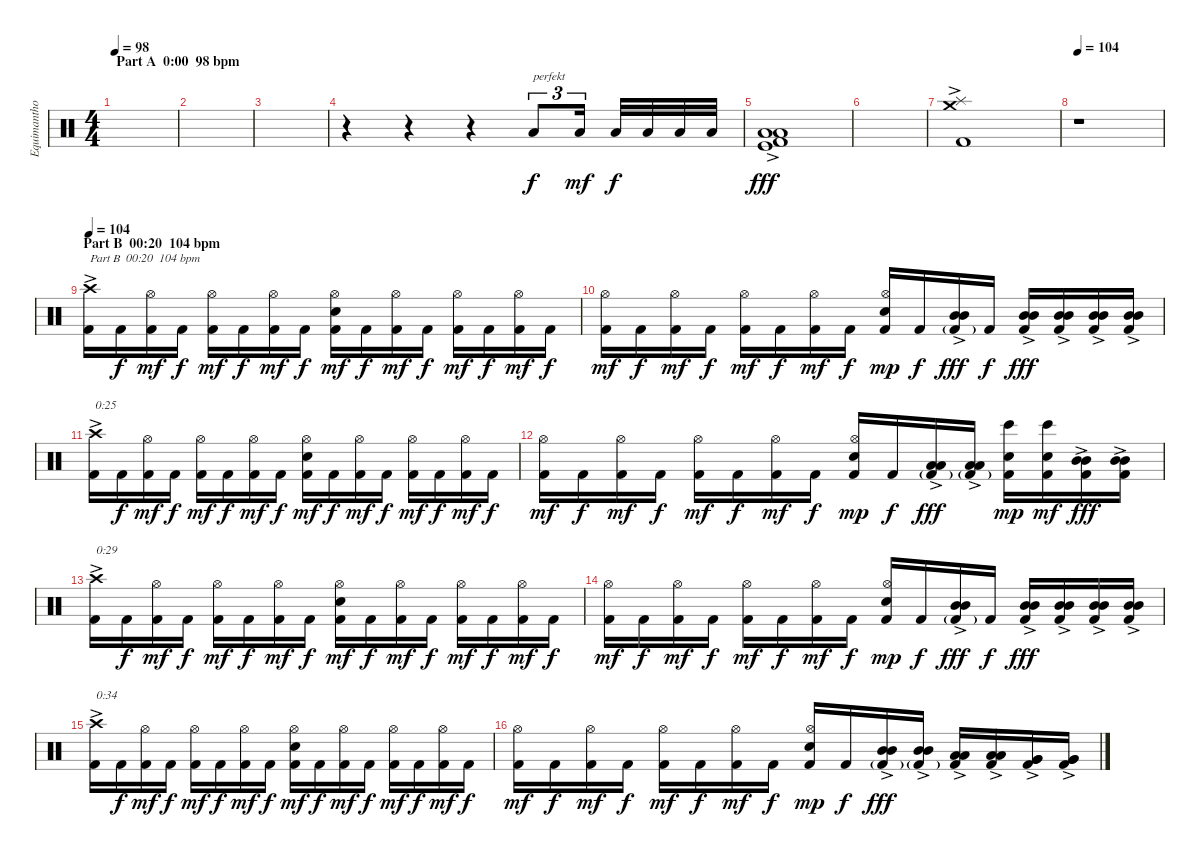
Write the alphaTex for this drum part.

\track ("Equimanthorn" "Equimantho") {instrument percussion}
\staff {score}
\articulation defaults
\ts (4 4)
\section ("" "Part A  0:00  98 bpm")
\tempo 98
\clef neutral
\ks c
|
|
|
r.4 r.4 r.4 "Low Tom (hit)".8{tu (3 2) txt "perfekt"} "Low Tom (hit)".16{tu (3 2) dy mf} "Low Tom (hit)".32{dy f} "Low Tom (hit)".32 "Low Tom (hit)".32 "Low Tom (hit)".32 |
("Kick (hit) 2" "Kick (hit)" "Low Tom (hit)" "Low Tom (hit)"{ac}).1{dy fff} |
|
("Kick (hit) 2"{ac} "Splash (hit)" "Crash medium (hit)").1 |
\tempo 104
r.1 |
\section ("" "Part B  00:20  104 bpm")
\tempo 104
("Kick (hit) 2" "Crash high (hit)"{ac}).16{txt "Part B  00:20  104 bpm"} "Kick (hit) 2".16{dy f} ("Kick (hit) 2" "Hi-Hat (open)").16{dy mf} "Kick (hit) 2".16{dy f} ("Kick (hit) 2" "Hi-Hat (open)").16{dy mf} "Kick (hit) 2".16{dy f} ("Kick (hit) 2" "Hi-Hat (open)").16{dy mf} "Kick (hit) 2".16{dy f} ("Kick (hit) 2" "Electric Snare (hit)" "Hi-Hat (open)").16{dy mf} "Kick (hit) 2".16{dy f} ("Kick (hit) 2" "Hi-Hat (open)").16{dy mf} "Kick (hit) 2".16{dy f} ("Kick (hit) 2" "Hi-Hat (open)").16{dy mf} "Kick (hit) 2".16{dy f} ("Kick (hit) 2" "Hi-Hat (open)").16{dy mf} "Kick (hit) 2".16{dy f} |
("Kick (hit) 2" "Hi-Hat (open)").16{dy mf} "Kick (hit) 2".16{dy f} ("Kick (hit) 2" "Hi-Hat (open)").16{dy mf} "Kick (hit) 2".16{dy f} ("Kick (hit) 2" "Hi-Hat (open)").16{dy mf} "Kick (hit) 2".16{dy f} ("Kick (hit) 2" "Hi-Hat (open)").16{dy mf} "Kick (hit) 2".16{dy f} ("Kick (hit) 2" "Electric Snare (hit)" "Hi-Hat (open)").16{dy mp} "Kick (hit) 2".16{dy f} ("Kick (hit) 2"{g} "Mid Tom (hit)"{ac} "Mid Tom (hit)"{ac}).16{dy fff} "Kick (hit) 2".16{dy f} ("Kick (hit) 2" "Mid Tom (hit)"{ac} "Mid Tom (hit)"{ac}).16{dy fff} ("Kick (hit) 2" "Mid Tom (hit)"{ac} "Mid Tom (hit)"{ac}).16 ("Kick (hit) 2" "Mid Tom (hit)"{ac} "Mid Tom (hit)"{ac}).16 ("Kick (hit) 2" "Mid Tom (hit)"{ac} "Mid Tom (hit)"{ac}).16 |
("Kick (hit) 2" "Crash high (hit)"{ac}).16{txt "0:25"} "Kick (hit) 2".16{dy f} ("Kick (hit) 2" "Hi-Hat (open)").16{dy mf} "Kick (hit) 2".16{dy f} ("Kick (hit) 2" "Hi-Hat (open)").16{dy mf} "Kick (hit) 2".16{dy f} ("Kick (hit) 2" "Hi-Hat (open)").16{dy mf} "Kick (hit) 2".16{dy f} ("Kick (hit) 2" "Electric Snare (hit)" "Hi-Hat (open)").16{dy mf} "Kick (hit) 2".16{dy f} ("Kick (hit) 2" "Hi-Hat (open)").16{dy mf} "Kick (hit) 2".16{dy f} ("Kick (hit) 2" "Hi-Hat (open)").16{dy mf} "Kick (hit) 2".16{dy f} ("Kick (hit) 2" "Hi-Hat (open)").16{dy mf} "Kick (hit) 2".16{dy f} |
("Kick (hit) 2" "Hi-Hat (open)").16{dy mf} "Kick (hit) 2".16{dy f} ("Kick (hit) 2" "Hi-Hat (open)").16{dy mf} "Kick (hit) 2".16{dy f} ("Kick (hit) 2" "Hi-Hat (open)").16{dy mf} "Kick (hit) 2".16{dy f} ("Kick (hit) 2" "Hi-Hat (open)").16{dy mf} "Kick (hit) 2".16{dy f} ("Kick (hit) 2" "Electric Snare (hit)" "Hi-Hat (open)").16{dy mp} "Kick (hit) 2".16{dy f} ("Kick (hit) 2"{g} "Low Tom (hit)"{ac} "Low Tom (hit)"{ac}).16{dy fff} ("Kick (hit) 2"{g} "Low Tom (hit)"{ac} "Low Tom (hit)"{ac}).16 ("Kick (hit) 2" "Bongo High (hit)" "Electric Snare (hit)").16{dy mp} ("Kick (hit) 2" "Bongo High (hit)" "Electric Snare (hit)").16{dy mf} ("Kick (hit) 2" "Mid Tom (hit)"{ac} "Mid Tom (hit)"{ac}).16{dy fff} ("Kick (hit) 2" "Mid Tom (hit)"{ac} "Mid Tom (hit)"{ac}).16 |
("Kick (hit) 2" "Crash high (hit)"{ac}).16{txt "0:29"} "Kick (hit) 2".16{dy f} ("Kick (hit) 2" "Hi-Hat (open)").16{dy mf} "Kick (hit) 2".16{dy f} ("Kick (hit) 2" "Hi-Hat (open)").16{dy mf} "Kick (hit) 2".16{dy f} ("Kick (hit) 2" "Hi-Hat (open)").16{dy mf} "Kick (hit) 2".16{dy f} ("Kick (hit) 2" "Electric Snare (hit)" "Hi-Hat (open)").16{dy mf} "Kick (hit) 2".16{dy f} ("Kick (hit) 2" "Hi-Hat (open)").16{dy mf} "Kick (hit) 2".16{dy f} ("Kick (hit) 2" "Hi-Hat (open)").16{dy mf} "Kick (hit) 2".16{dy f} ("Kick (hit) 2" "Hi-Hat (open)").16{dy mf} "Kick (hit) 2".16{dy f} |
("Kick (hit) 2" "Hi-Hat (open)").16{dy mf} "Kick (hit) 2".16{dy f} ("Kick (hit) 2" "Hi-Hat (open)").16{dy mf} "Kick (hit) 2".16{dy f} ("Kick (hit) 2" "Hi-Hat (open)").16{dy mf} "Kick (hit) 2".16{dy f} ("Kick (hit) 2" "Hi-Hat (open)").16{dy mf} "Kick (hit) 2".16{dy f} ("Kick (hit) 2" "Electric Snare (hit)" "Hi-Hat (open)").16{dy mp} "Kick (hit) 2".16{dy f} ("Kick (hit) 2"{g} "Mid Tom (hit)"{ac} "Mid Tom (hit)"{ac}).16{dy fff} "Kick (hit) 2".16{dy f} ("Kick (hit) 2" "Mid Tom (hit)"{ac} "Mid Tom (hit)"{ac}).16{dy fff} ("Kick (hit) 2" "Mid Tom (hit)"{ac} "Mid Tom (hit)"{ac}).16 ("Kick (hit) 2" "Mid Tom (hit)"{ac} "Mid Tom (hit)"{ac}).16 ("Kick (hit) 2" "Mid Tom (hit)"{ac} "Mid Tom (hit)"{ac}).16 |
("Kick (hit) 2" "Crash high (hit)"{ac}).16{txt "0:34"} "Kick (hit) 2".16{dy f} ("Kick (hit) 2" "Hi-Hat (open)").16{dy mf} "Kick (hit) 2".16{dy f} ("Kick (hit) 2" "Hi-Hat (open)").16{dy mf} "Kick (hit) 2".16{dy f} ("Kick (hit) 2" "Hi-Hat (open)").16{dy mf} "Kick (hit) 2".16{dy f} ("Kick (hit) 2" "Electric Snare (hit)" "Hi-Hat (open)").16{dy mf} "Kick (hit) 2".16{dy f} ("Kick (hit) 2" "Hi-Hat (open)").16{dy mf} "Kick (hit) 2".16{dy f} ("Kick (hit) 2" "Hi-Hat (open)").16{dy mf} "Kick (hit) 2".16{dy f} ("Kick (hit) 2" "Hi-Hat (open)").16{dy mf} "Kick (hit) 2".16{dy f} |
("Kick (hit) 2" "Hi-Hat (open)").16{dy mf} "Kick (hit) 2".16{dy f} ("Kick (hit) 2" "Hi-Hat (open)").16{dy mf} "Kick (hit) 2".16{dy f} ("Kick (hit) 2" "Hi-Hat (open)").16{dy mf} "Kick (hit) 2".16{dy f} ("Kick (hit) 2" "Hi-Hat (open)").16{dy mf} "Kick (hit) 2".16{dy f} ("Kick (hit) 2" "Electric Snare (hit)" "Hi-Hat (open)").16{dy mp} "Kick (hit) 2".16{dy f} ("Kick (hit) 2"{g} "Mid Tom (hit)"{ac} "Mid Tom (hit)"{ac}).16{dy fff} ("Kick (hit) 2"{g} "Mid Tom (hit)"{ac} "Mid Tom (hit)"{ac}).16 ("Kick (hit) 2" "Low Tom (hit)"{ac} "Low Tom (hit)"{ac}).16 ("Kick (hit) 2" "Low Tom (hit)"{ac} "Low Tom (hit)"{ac}).16 ("Kick (hit) 2" "Very Low Tom (hit)"{ac} "Very Low Tom (hit)"{ac}).16 ("Kick (hit) 2" "Very Low Tom (hit)"{ac} "Very Low Tom (hit)"{ac}).16
